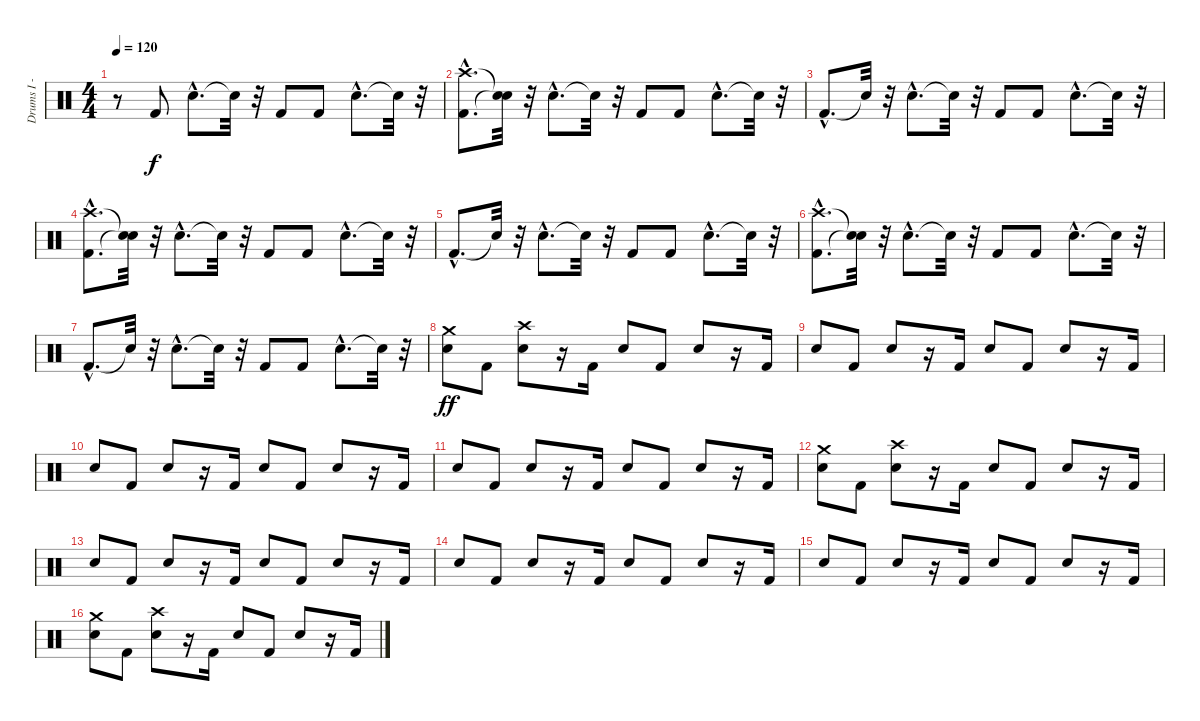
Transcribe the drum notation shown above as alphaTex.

\track ("Drums I - Bobby Schayer" "Drums I - ") {instrument percussion}
\staff {score}
\articulation defaults
\ts (4 4)
\tempo 120
\clef neutral
\ks c
r.8{dy f} "Kick (hit) 2".8 "Snare (hit) 2"{hac}.8{d} "Snare (hit)"{t}.32 r.32 "Kick (hit) 2".8 "Kick (hit) 2".8 "Snare (hit) 2"{hac}.8{d} "Snare (hit)"{t}.32 r.32 |
("Kick (hit) 2"{hac} "Crash high (hit)"{hac}).8{d} ("Snare (hit)"{t} "Snare (hit)"{t}).32 r.32 "Snare (hit) 2"{hac}.8{d} "Snare (hit)"{t}.32 r.32 "Kick (hit) 2".8 "Kick (hit) 2".8 "Snare (hit) 2"{hac}.8{d} "Snare (hit)"{t}.32 r.32 |
"Kick (hit) 2"{hac}.8{d} "Snare (hit)"{t}.32 r.32 "Snare (hit) 2"{hac}.8{d} "Snare (hit)"{t}.32 r.32 "Kick (hit) 2".8 "Kick (hit) 2".8 "Snare (hit) 2"{hac}.8{d} "Snare (hit)"{t}.32 r.32 |
("Kick (hit) 2"{hac} "Crash high (hit)"{hac}).8{d} ("Snare (hit)"{t} "Snare (hit)"{t}).32 r.32 "Snare (hit) 2"{hac}.8{d} "Snare (hit)"{t}.32 r.32 "Kick (hit) 2".8 "Kick (hit) 2".8 "Snare (hit) 2"{hac}.8{d} "Snare (hit)"{t}.32 r.32 |
"Kick (hit) 2"{hac}.8{d} "Snare (hit)"{t}.32 r.32 "Snare (hit) 2"{hac}.8{d} "Snare (hit)"{t}.32 r.32 "Kick (hit) 2".8 "Kick (hit) 2".8 "Snare (hit) 2"{hac}.8{d} "Snare (hit)"{t}.32 r.32 |
("Kick (hit) 2"{hac} "Crash high (hit)"{hac}).8{d} ("Snare (hit)"{t} "Snare (hit)"{t}).32 r.32 "Snare (hit) 2"{hac}.8{d} "Snare (hit)"{t}.32 r.32 "Kick (hit) 2".8 "Kick (hit) 2".8 "Snare (hit) 2"{hac}.8{d} "Snare (hit)"{t}.32 r.32 |
"Kick (hit) 2"{hac}.8{d} "Snare (hit)"{t}.32 r.32 "Snare (hit) 2"{hac}.8{d} "Snare (hit)"{t}.32 r.32 "Kick (hit) 2".8 "Kick (hit) 2".8 "Snare (hit) 2"{hac}.8{d} "Snare (hit)"{t}.32 r.32 |
("Snare (hit) 2" "Crash medium (hit)").8{dy ff} "Kick (hit) 2".8 ("Snare (hit) 2" "Crash high (hit)").8 r.16 "Kick (hit) 2".16 "Snare (hit) 2".8 "Kick (hit) 2".8 "Snare (hit) 2".8 r.16 "Kick (hit) 2".16 |
"Snare (hit) 2".8 "Kick (hit) 2".8 "Snare (hit) 2".8 r.16 "Kick (hit) 2".16 "Snare (hit) 2".8 "Kick (hit) 2".8 "Snare (hit) 2".8 r.16 "Kick (hit) 2".16 |
"Snare (hit) 2".8 "Kick (hit) 2".8 "Snare (hit) 2".8 r.16 "Kick (hit) 2".16 "Snare (hit) 2".8 "Kick (hit) 2".8 "Snare (hit) 2".8 r.16 "Kick (hit) 2".16 |
"Snare (hit) 2".8 "Kick (hit) 2".8 "Snare (hit) 2".8 r.16 "Kick (hit) 2".16 "Snare (hit) 2".8 "Kick (hit) 2".8 "Snare (hit) 2".8 r.16 "Kick (hit) 2".16 |
("Snare (hit) 2" "Crash medium (hit)").8 "Kick (hit) 2".8 ("Snare (hit) 2" "Crash high (hit)").8 r.16 "Kick (hit) 2".16 "Snare (hit) 2".8 "Kick (hit) 2".8 "Snare (hit) 2".8 r.16 "Kick (hit) 2".16 |
"Snare (hit) 2".8 "Kick (hit) 2".8 "Snare (hit) 2".8 r.16 "Kick (hit) 2".16 "Snare (hit) 2".8 "Kick (hit) 2".8 "Snare (hit) 2".8 r.16 "Kick (hit) 2".16 |
"Snare (hit) 2".8 "Kick (hit) 2".8 "Snare (hit) 2".8 r.16 "Kick (hit) 2".16 "Snare (hit) 2".8 "Kick (hit) 2".8 "Snare (hit) 2".8 r.16 "Kick (hit) 2".16 |
"Snare (hit) 2".8 "Kick (hit) 2".8 "Snare (hit) 2".8 r.16 "Kick (hit) 2".16 "Snare (hit) 2".8 "Kick (hit) 2".8 "Snare (hit) 2".8 r.16 "Kick (hit) 2".16 |
("Snare (hit) 2" "Crash medium (hit)").8 "Kick (hit) 2".8 ("Snare (hit) 2" "Crash high (hit)").8 r.16 "Kick (hit) 2".16 "Snare (hit) 2".8 "Kick (hit) 2".8 "Snare (hit) 2".8 r.16 "Kick (hit) 2".16
